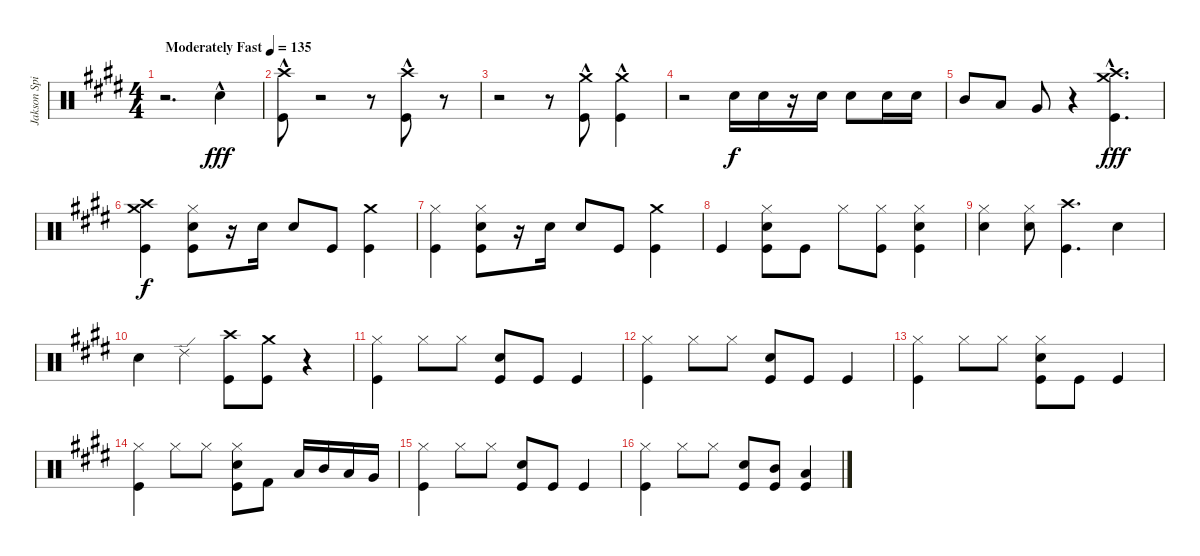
\track ("Jakson Spires Drums" "Jakson Spi") {instrument percussion}
\staff {score}
\articulation defaults
\ts (4 4)
\tempo (135 "Moderately Fast")
\clef neutral
\ks e
r.2{d dy fff} "Snare (hit) 2"{hac}.4 |
("Crash high (hit)"{hac} "Kick (hit)"{hac}).8 r.2 r.8 ("Crash high (hit)"{hac} "Kick (hit)"{hac}).8 r.8 |
r.2 r.8 ("Crash medium (hit)"{hac} "Kick (hit)"{hac}).8 ("Crash medium (hit)"{hac} "Kick (hit)"{hac}).4 |
r.2 "Snare (hit) 2".16{dy f} "Snare (hit) 2".16 r.16 "Snare (hit) 2".16 "Snare (hit) 2".8 "Snare (hit) 2".16 "Snare (hit) 2".16 |
"Mid Tom (hit)".8 "Low Tom (hit)".8 "Very Low Tom (hit)".8 r.4 ("Crash high (hit)"{hac} "Crash medium (hit)"{hac} "Kick (hit)"{hac}).4{d dy fff} |
("Crash high (hit)" "Crash medium (hit)" "Kick (hit)").4{dy f} ("Hi-Hat (closed)" "Snare (hit) 2" "Kick (hit)").8 r.16 "Snare (hit) 2".16 "Snare (hit) 2".8 "Kick (hit)".8 ("Crash medium (hit)" "Kick (hit)").4 |
("Hi-Hat (closed)" "Kick (hit)").4 ("Hi-Hat (closed)" "Snare (hit) 2" "Kick (hit)").8 r.16 "Snare (hit) 2".16 "Snare (hit) 2".8 "Kick (hit)".8 ("Crash medium (hit)" "Kick (hit)").4 |
"Kick (hit)".4 ("Hi-Hat (closed)" "Snare (hit) 2" "Kick (hit)").8 "Kick (hit)".8 "Hi-Hat (closed)".8 ("Hi-Hat (closed)" "Kick (hit)").8 ("Hi-Hat (closed)" "Snare (hit) 2" "Kick (hit)").4 |
("Hi-Hat (closed)" "Snare (hit) 2").4 ("Hi-Hat (closed)" "Snare (hit) 2").8 ("Crash high (hit)" "Kick (hit)").4{d} "Snare (hit) 2".4 |
"Snare (hit) 2".4 "Ride (edge) 2".4 ("Crash high (hit)" "Kick (hit)").8 ("Crash medium (hit)" "Kick (hit)").8 r.4 |
("Hi-Hat (closed)" "Kick (hit)").4 "Hi-Hat (closed)".8 "Hi-Hat (closed)".8 ("Snare (hit) 2" "Kick (hit)").8 "Kick (hit)".8 "Kick (hit)".4 |
("Hi-Hat (closed)" "Kick (hit)").4 "Hi-Hat (closed)".8 "Hi-Hat (closed)".8 ("Snare (hit) 2" "Kick (hit)").8 "Kick (hit)".8 "Kick (hit)".4 |
("Hi-Hat (closed)" "Kick (hit)").4 "Hi-Hat (closed)".8 "Hi-Hat (closed)".8 ("Hi-Hat (closed)" "Snare (hit) 2" "Kick (hit)").8 "Kick (hit)".8 "Kick (hit)".4 |
("Hi-Hat (closed)" "Kick (hit)").4 "Hi-Hat (closed)".8 "Hi-Hat (closed)".8 ("Hi-Hat (closed)" "Snare (hit) 2" "Kick (hit)").8 "Kick (hit) 2".8 "Low Tom (hit)".16 "Mid Tom (hit)".16 "Low Tom (hit)".16 "Very Low Tom (hit)".16 |
("Hi-Hat (closed)" "Kick (hit)").4 "Hi-Hat (closed)".8 "Hi-Hat (closed)".8 ("Snare (hit) 2" "Kick (hit)").8 "Kick (hit)".8 "Kick (hit)".4 |
("Hi-Hat (closed)" "Kick (hit)").4 "Hi-Hat (closed)".8 "Hi-Hat (closed)".8 ("Snare (hit) 2" "Kick (hit)").8 ("Mid Tom (hit)" "Kick (hit)").8 ("Low Tom (hit)" "Kick (hit)").4
